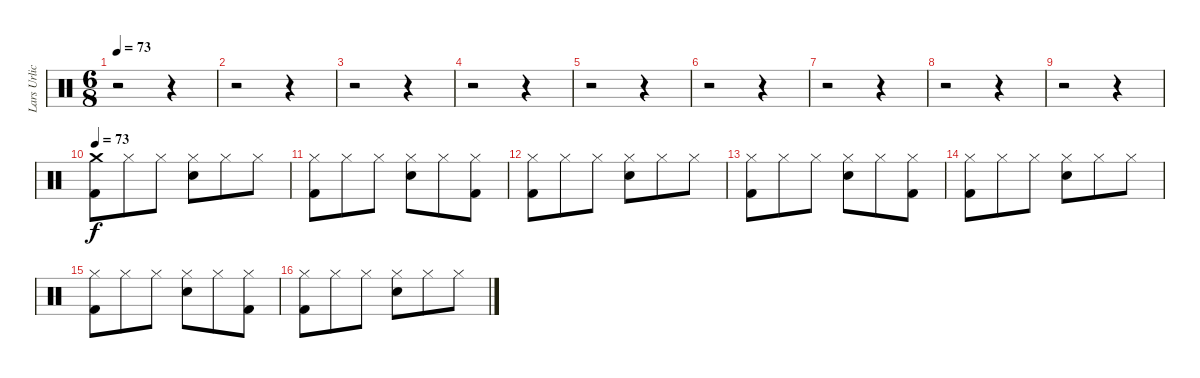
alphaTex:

\track ("Lars Urlich" "Lars Urlic") {instrument percussion}
\staff {score}
\articulation defaults
\ts (6 8)
\tempo 73
\clef neutral
\ks c
r.2{dy f} r.4 |
r.2 r.4 |
r.2 r.4 |
r.2 r.4 |
r.2 r.4 |
r.2 r.4 |
r.2 r.4 |
r.2 r.4 |
r.2 r.4 |
\tempo 73
("Crash medium (hit)" "Kick (hit) 2").8 "Hi-Hat (closed)".8 "Hi-Hat (closed)".8 ("Hi-Hat (closed)" "Snare (hit) 2").8 "Hi-Hat (closed)".8 "Hi-Hat (closed)".8 |
("Hi-Hat (closed)" "Kick (hit) 2").8 "Hi-Hat (closed)".8 "Hi-Hat (closed)".8 ("Hi-Hat (closed)" "Snare (hit) 2").8 "Hi-Hat (closed)".8 ("Hi-Hat (closed)" "Kick (hit) 2").8 |
("Hi-Hat (closed)" "Kick (hit) 2").8 "Hi-Hat (closed)".8 "Hi-Hat (closed)".8 ("Hi-Hat (closed)" "Snare (hit) 2").8 "Hi-Hat (closed)".8 "Hi-Hat (closed)".8 |
("Hi-Hat (closed)" "Kick (hit) 2").8 "Hi-Hat (closed)".8 "Hi-Hat (closed)".8 ("Hi-Hat (closed)" "Snare (hit) 2").8 "Hi-Hat (closed)".8 ("Hi-Hat (closed)" "Kick (hit) 2").8 |
("Hi-Hat (closed)" "Kick (hit) 2").8 "Hi-Hat (closed)".8 "Hi-Hat (closed)".8 ("Hi-Hat (closed)" "Snare (hit) 2").8 "Hi-Hat (closed)".8 "Hi-Hat (closed)".8 |
("Hi-Hat (closed)" "Kick (hit) 2").8 "Hi-Hat (closed)".8 "Hi-Hat (closed)".8 ("Hi-Hat (closed)" "Snare (hit) 2").8 "Hi-Hat (closed)".8 ("Hi-Hat (closed)" "Kick (hit) 2").8 |
("Hi-Hat (closed)" "Kick (hit) 2").8 "Hi-Hat (closed)".8 "Hi-Hat (closed)".8 ("Hi-Hat (closed)" "Snare (hit) 2").8 "Hi-Hat (closed)".8 "Hi-Hat (closed)".8
